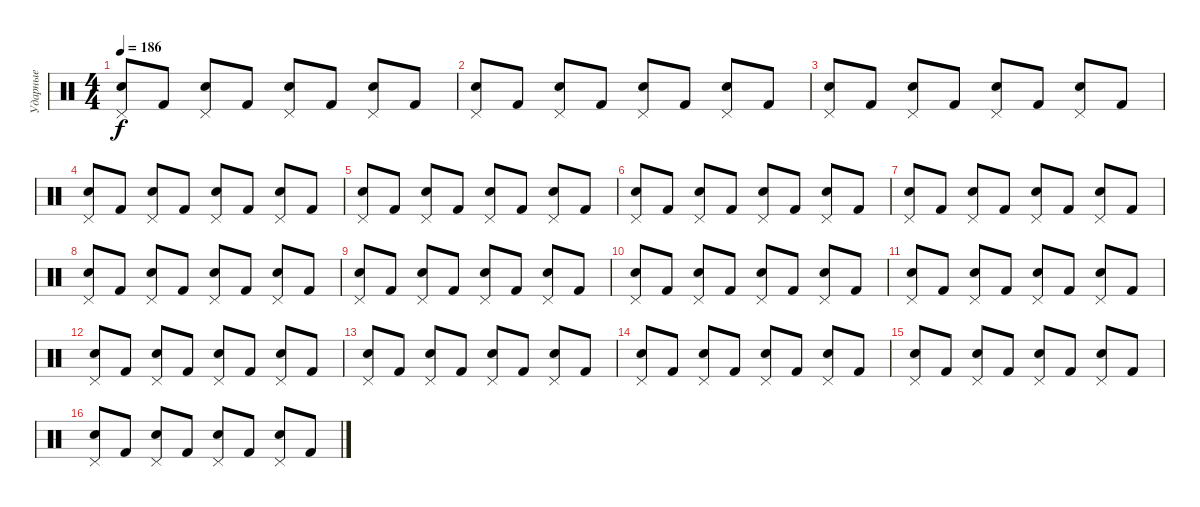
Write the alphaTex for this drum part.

\track ("Ударные" "Ударные") {instrument percussion}
\staff {score}
\articulation defaults
\ts (4 4)
\tempo 186
\clef neutral
\ks c
("Pedal Hi-Hat (hit)" "Snare (hit) 2").8{dy f} "Kick (hit) 2".8 ("Pedal Hi-Hat (hit)" "Snare (hit) 2").8 "Kick (hit) 2".8 ("Pedal Hi-Hat (hit)" "Snare (hit) 2").8 "Kick (hit) 2".8 ("Pedal Hi-Hat (hit)" "Snare (hit) 2").8 "Kick (hit) 2".8 |
("Pedal Hi-Hat (hit)" "Snare (hit) 2").8 "Kick (hit) 2".8 ("Pedal Hi-Hat (hit)" "Snare (hit) 2").8 "Kick (hit) 2".8 ("Pedal Hi-Hat (hit)" "Snare (hit) 2").8 "Kick (hit) 2".8 ("Pedal Hi-Hat (hit)" "Snare (hit) 2").8 "Kick (hit) 2".8 |
("Pedal Hi-Hat (hit)" "Snare (hit) 2").8 "Kick (hit) 2".8 ("Pedal Hi-Hat (hit)" "Snare (hit) 2").8 "Kick (hit) 2".8 ("Pedal Hi-Hat (hit)" "Snare (hit) 2").8 "Kick (hit) 2".8 ("Pedal Hi-Hat (hit)" "Snare (hit) 2").8 "Kick (hit) 2".8 |
("Pedal Hi-Hat (hit)" "Snare (hit) 2").8 "Kick (hit) 2".8 ("Pedal Hi-Hat (hit)" "Snare (hit) 2").8 "Kick (hit) 2".8 ("Pedal Hi-Hat (hit)" "Snare (hit) 2").8 "Kick (hit) 2".8 ("Pedal Hi-Hat (hit)" "Snare (hit) 2").8 "Kick (hit) 2".8 |
("Pedal Hi-Hat (hit)" "Snare (hit) 2").8 "Kick (hit) 2".8 ("Pedal Hi-Hat (hit)" "Snare (hit) 2").8 "Kick (hit) 2".8 ("Pedal Hi-Hat (hit)" "Snare (hit) 2").8 "Kick (hit) 2".8 ("Pedal Hi-Hat (hit)" "Snare (hit) 2").8 "Kick (hit) 2".8 |
("Pedal Hi-Hat (hit)" "Snare (hit) 2").8 "Kick (hit) 2".8 ("Pedal Hi-Hat (hit)" "Snare (hit) 2").8 "Kick (hit) 2".8 ("Pedal Hi-Hat (hit)" "Snare (hit) 2").8 "Kick (hit) 2".8 ("Pedal Hi-Hat (hit)" "Snare (hit) 2").8 "Kick (hit) 2".8 |
("Pedal Hi-Hat (hit)" "Snare (hit) 2").8 "Kick (hit) 2".8 ("Pedal Hi-Hat (hit)" "Snare (hit) 2").8 "Kick (hit) 2".8 ("Pedal Hi-Hat (hit)" "Snare (hit) 2").8 "Kick (hit) 2".8 ("Pedal Hi-Hat (hit)" "Snare (hit) 2").8 "Kick (hit) 2".8 |
("Pedal Hi-Hat (hit)" "Snare (hit) 2").8 "Kick (hit) 2".8 ("Pedal Hi-Hat (hit)" "Snare (hit) 2").8 "Kick (hit) 2".8 ("Pedal Hi-Hat (hit)" "Snare (hit) 2").8 "Kick (hit) 2".8 ("Pedal Hi-Hat (hit)" "Snare (hit) 2").8 "Kick (hit) 2".8 |
("Pedal Hi-Hat (hit)" "Snare (hit) 2").8 "Kick (hit) 2".8 ("Pedal Hi-Hat (hit)" "Snare (hit) 2").8 "Kick (hit) 2".8 ("Pedal Hi-Hat (hit)" "Snare (hit) 2").8 "Kick (hit) 2".8 ("Pedal Hi-Hat (hit)" "Snare (hit) 2").8 "Kick (hit) 2".8 |
("Pedal Hi-Hat (hit)" "Snare (hit) 2").8 "Kick (hit) 2".8 ("Pedal Hi-Hat (hit)" "Snare (hit) 2").8 "Kick (hit) 2".8 ("Pedal Hi-Hat (hit)" "Snare (hit) 2").8 "Kick (hit) 2".8 ("Pedal Hi-Hat (hit)" "Snare (hit) 2").8 "Kick (hit) 2".8 |
("Pedal Hi-Hat (hit)" "Snare (hit) 2").8 "Kick (hit) 2".8 ("Pedal Hi-Hat (hit)" "Snare (hit) 2").8 "Kick (hit) 2".8 ("Pedal Hi-Hat (hit)" "Snare (hit) 2").8 "Kick (hit) 2".8 ("Pedal Hi-Hat (hit)" "Snare (hit) 2").8 "Kick (hit) 2".8 |
("Pedal Hi-Hat (hit)" "Snare (hit) 2").8 "Kick (hit) 2".8 ("Pedal Hi-Hat (hit)" "Snare (hit) 2").8 "Kick (hit) 2".8 ("Pedal Hi-Hat (hit)" "Snare (hit) 2").8 "Kick (hit) 2".8 ("Pedal Hi-Hat (hit)" "Snare (hit) 2").8 "Kick (hit) 2".8 |
("Pedal Hi-Hat (hit)" "Snare (hit) 2").8 "Kick (hit) 2".8 ("Pedal Hi-Hat (hit)" "Snare (hit) 2").8 "Kick (hit) 2".8 ("Pedal Hi-Hat (hit)" "Snare (hit) 2").8 "Kick (hit) 2".8 ("Pedal Hi-Hat (hit)" "Snare (hit) 2").8 "Kick (hit) 2".8 |
("Pedal Hi-Hat (hit)" "Snare (hit) 2").8 "Kick (hit) 2".8 ("Pedal Hi-Hat (hit)" "Snare (hit) 2").8 "Kick (hit) 2".8 ("Pedal Hi-Hat (hit)" "Snare (hit) 2").8 "Kick (hit) 2".8 ("Pedal Hi-Hat (hit)" "Snare (hit) 2").8 "Kick (hit) 2".8 |
("Pedal Hi-Hat (hit)" "Snare (hit) 2").8 "Kick (hit) 2".8 ("Pedal Hi-Hat (hit)" "Snare (hit) 2").8 "Kick (hit) 2".8 ("Pedal Hi-Hat (hit)" "Snare (hit) 2").8 "Kick (hit) 2".8 ("Pedal Hi-Hat (hit)" "Snare (hit) 2").8 "Kick (hit) 2".8 |
("Pedal Hi-Hat (hit)" "Snare (hit) 2").8 "Kick (hit) 2".8 ("Pedal Hi-Hat (hit)" "Snare (hit) 2").8 "Kick (hit) 2".8 ("Pedal Hi-Hat (hit)" "Snare (hit) 2").8 "Kick (hit) 2".8 ("Pedal Hi-Hat (hit)" "Snare (hit) 2").8 "Kick (hit) 2".8
